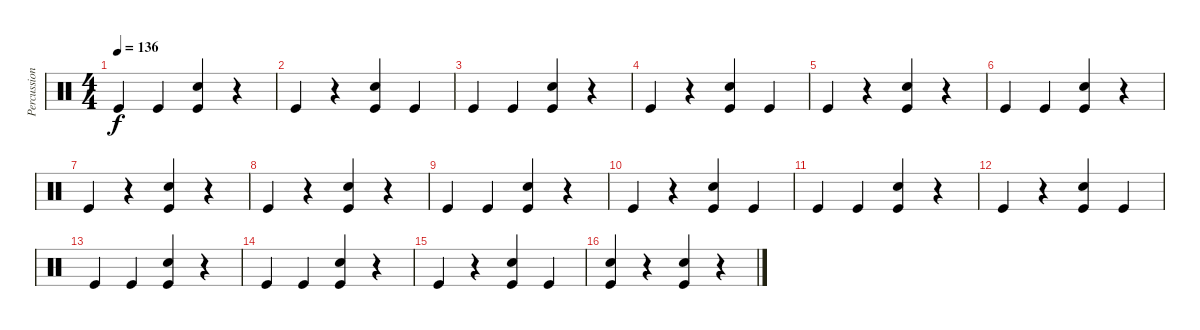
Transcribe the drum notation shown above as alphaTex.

\track ("Percussion" "Percussion") {instrument percussion}
\staff {score}
\articulation defaults
\ts (4 4)
\tempo 136
\clef neutral
\ks c "Kick (hit)".4{dy f} "Kick (hit)".4
("Kick (hit)" "Electric Snare (hit)").4 r.4 |
"Kick (hit)".4 r.4 ("Kick (hit)" "Electric Snare (hit)").4 "Kick (hit)".4 |
"Kick (hit)".4 "Kick (hit)".4 ("Kick (hit)" "Electric Snare (hit)").4 r.4 |
"Kick (hit)".4 r.4 ("Kick (hit)" "Electric Snare (hit)").4 "Kick (hit)".4 |
"Kick (hit)".4 r.4 ("Kick (hit)" "Electric Snare (hit)").4 r.4 |
"Kick (hit)".4 "Kick (hit)".4 ("Kick (hit)" "Electric Snare (hit)").4 r.4 |
"Kick (hit)".4 r.4 ("Kick (hit)" "Electric Snare (hit)").4 r.4 |
"Kick (hit)".4 r.4 ("Kick (hit)" "Electric Snare (hit)").4 r.4 |
"Kick (hit)".4 "Kick (hit)".4 ("Kick (hit)" "Electric Snare (hit)").4 r.4 |
"Kick (hit)".4 r.4 ("Kick (hit)" "Electric Snare (hit)").4 "Kick (hit)".4 |
"Kick (hit)".4 "Kick (hit)".4 ("Kick (hit)" "Electric Snare (hit)").4 r.4 |
"Kick (hit)".4 r.4 ("Kick (hit)" "Electric Snare (hit)").4 "Kick (hit)".4 |
"Kick (hit)".4 "Kick (hit)".4 ("Kick (hit)" "Electric Snare (hit)").4 r.4 |
"Kick (hit)".4 "Kick (hit)".4 ("Kick (hit)" "Electric Snare (hit)").4 r.4 |
"Kick (hit)".4 r.4 ("Kick (hit)" "Electric Snare (hit)").4 "Kick (hit)".4 |
("Kick (hit)" "Electric Snare (hit)").4 r.4 ("Kick (hit)" "Electric Snare (hit)").4 r.4
